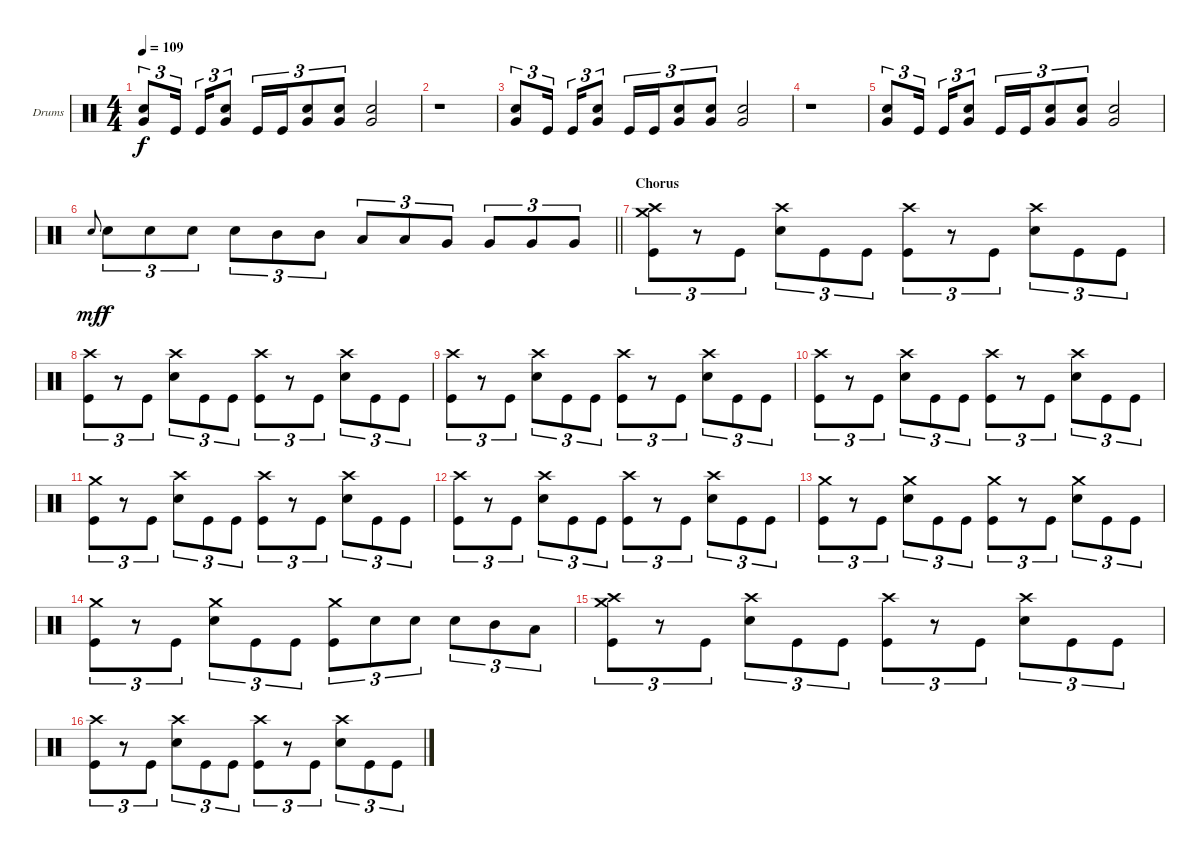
\bracketExtendMode groupsimilarinstruments
\firstSystemTrackNameOrientation horizontal
\otherSystemsTrackNameOrientation horizontal
\track ("Drumkit" "Drums") {instrument percussion}
\staff {score}
\articulation defaults
\ts (4 4)
\tempo 109
\clef neutral
\ks c
("Very Low Tom (hit)" "Snare (hit) 2").8{tu (3 2) dy f} "Kick (hit)".16{tu (3 2)} "Kick (hit)".16{tu (3 2)} ("Very Low Tom (hit)" "Snare (hit) 2").8{tu (3 2)} "Kick (hit)".16{tu (3 2)} "Kick (hit)".16{tu (3 2)} ("Very Low Tom (hit)" "Snare (hit) 2").8{tu (3 2)} ("Very Low Tom (hit)" "Snare (hit) 2").8{tu (3 2)} ("Very Low Tom (hit)" "Snare (hit) 2").2 |
r.1 |
("Very Low Tom (hit)" "Snare (hit) 2").8{tu (3 2)} "Kick (hit)".16{tu (3 2)} "Kick (hit)".16{tu (3 2)} ("Very Low Tom (hit)" "Snare (hit) 2").8{tu (3 2)} "Kick (hit)".16{tu (3 2)} "Kick (hit)".16{tu (3 2)} ("Very Low Tom (hit)" "Snare (hit) 2").8{tu (3 2)} ("Very Low Tom (hit)" "Snare (hit) 2").8{tu (3 2)} ("Very Low Tom (hit)" "Snare (hit) 2").2 |
r.1 |
("Very Low Tom (hit)" "Snare (hit) 2").8{tu (3 2)} "Kick (hit)".16{tu (3 2)} "Kick (hit)".16{tu (3 2)} ("Very Low Tom (hit)" "Snare (hit) 2").8{tu (3 2)} "Kick (hit)".16{tu (3 2)} "Kick (hit)".16{tu (3 2)} ("Very Low Tom (hit)" "Snare (hit) 2").8{tu (3 2)} ("Very Low Tom (hit)" "Snare (hit) 2").8{tu (3 2)} ("Very Low Tom (hit)" "Snare (hit) 2").2 |
\barLineRight lightlight "Snare (hit) 2".8{gr onbeat dy mf} "Snare (hit) 2".8{tu (3 2) dy f} "Snare (hit) 2".8{tu (3 2)} "Snare (hit) 2".8{tu (3 2)} "Snare (hit) 2".8{tu (3 2)} "Mid Tom (hit)".8{tu (3 2)} "Mid Tom (hit)".8{tu (3 2)} "Low Tom (hit)".8{tu (3 2)} "Low Tom (hit)".8{tu (3 2)} "Very Low Tom (hit)".8{tu (3 2)} "Very Low Tom (hit)".8{tu (3 2)} "Very Low Tom (hit)".8{tu (3 2)} "Very Low Tom (hit)".8{tu (3 2)}
|
\section ("" "Chorus")
("Crash high (hit)" "Crash medium (hit)" "Kick (hit)").8{tu (3 2)} r.8{tu (3 2)} "Kick (hit)".8{tu (3 2)} ("Crash high (hit)" "Snare (hit) 2").8{tu (3 2)} "Kick (hit)".8{tu (3 2)} "Kick (hit)".8{tu (3 2)} ("Crash high (hit)" "Kick (hit)").8{tu (3 2)} r.8{tu (3 2)} "Kick (hit)".8{tu (3 2)} ("Crash high (hit)" "Snare (hit) 2").8{tu (3 2)} "Kick (hit)".8{tu (3 2)} "Kick (hit)".8{tu (3 2)} |
("Crash high (hit)" "Kick (hit)").8{tu (3 2)} r.8{tu (3 2)} "Kick (hit)".8{tu (3 2)} ("Crash high (hit)" "Snare (hit) 2").8{tu (3 2)} "Kick (hit)".8{tu (3 2)} "Kick (hit)".8{tu (3 2)} ("Crash high (hit)" "Kick (hit)").8{tu (3 2)} r.8{tu (3 2)} "Kick (hit)".8{tu (3 2)} ("Crash high (hit)" "Snare (hit) 2").8{tu (3 2)} "Kick (hit)".8{tu (3 2)} "Kick (hit)".8{tu (3 2)} |
("Crash high (hit)" "Kick (hit)").8{tu (3 2)} r.8{tu (3 2)} "Kick (hit)".8{tu (3 2)} ("Crash high (hit)" "Snare (hit) 2").8{tu (3 2)} "Kick (hit)".8{tu (3 2)} "Kick (hit)".8{tu (3 2)} ("Crash high (hit)" "Kick (hit)").8{tu (3 2)} r.8{tu (3 2)} "Kick (hit)".8{tu (3 2)} ("Crash high (hit)" "Snare (hit) 2").8{tu (3 2)} "Kick (hit)".8{tu (3 2)} "Kick (hit)".8{tu (3 2)} |
("Crash high (hit)" "Kick (hit)").8{tu (3 2)} r.8{tu (3 2)} "Kick (hit)".8{tu (3 2)} ("Crash high (hit)" "Snare (hit) 2").8{tu (3 2)} "Kick (hit)".8{tu (3 2)} "Kick (hit)".8{tu (3 2)} ("Crash high (hit)" "Kick (hit)").8{tu (3 2)} r.8{tu (3 2)} "Kick (hit)".8{tu (3 2)} ("Crash high (hit)" "Snare (hit) 2").8{tu (3 2)} "Kick (hit)".8{tu (3 2)} "Kick (hit)".8{tu (3 2)} |
("Crash medium (hit)" "Kick (hit)").8{tu (3 2)} r.8{tu (3 2)} "Kick (hit)".8{tu (3 2)} ("Crash high (hit)" "Snare (hit) 2").8{tu (3 2)} "Kick (hit)".8{tu (3 2)} "Kick (hit)".8{tu (3 2)} ("Crash high (hit)" "Kick (hit)").8{tu (3 2)} r.8{tu (3 2)} "Kick (hit)".8{tu (3 2)} ("Crash high (hit)" "Snare (hit) 2").8{tu (3 2)} "Kick (hit)".8{tu (3 2)} "Kick (hit)".8{tu (3 2)} |
("Crash high (hit)" "Kick (hit)").8{tu (3 2)} r.8{tu (3 2)} "Kick (hit)".8{tu (3 2)} ("Crash high (hit)" "Snare (hit) 2").8{tu (3 2)} "Kick (hit)".8{tu (3 2)} "Kick (hit)".8{tu (3 2)} ("Crash high (hit)" "Kick (hit)").8{tu (3 2)} r.8{tu (3 2)} "Kick (hit)".8{tu (3 2)} ("Crash high (hit)" "Snare (hit) 2").8{tu (3 2)} "Kick (hit)".8{tu (3 2)} "Kick (hit)".8{tu (3 2)} |
("Crash medium (hit)" "Kick (hit)").8{tu (3 2)} r.8{tu (3 2)} "Kick (hit)".8{tu (3 2)} ("Crash medium (hit)" "Snare (hit) 2").8{tu (3 2)} "Kick (hit)".8{tu (3 2)} "Kick (hit)".8{tu (3 2)} ("Crash medium (hit)" "Kick (hit)").8{tu (3 2)} r.8{tu (3 2)} "Kick (hit)".8{tu (3 2)} ("Crash medium (hit)" "Snare (hit) 2").8{tu (3 2)} "Kick (hit)".8{tu (3 2)} "Kick (hit)".8{tu (3 2)} |
("Crash medium (hit)" "Kick (hit)").8{tu (3 2)} r.8{tu (3 2)} "Kick (hit)".8{tu (3 2)} ("Crash medium (hit)" "Snare (hit) 2").8{tu (3 2)} "Kick (hit)".8{tu (3 2)} "Kick (hit)".8{tu (3 2)} ("Crash medium (hit)" "Kick (hit)").8{tu (3 2)} "Snare (hit) 2".8{tu (3 2)} "Snare (hit) 2".8{tu (3 2)} "Snare (hit) 2".8{tu (3 2)} "Mid Tom (hit)".8{tu (3 2)} "Low Tom (hit)".8{tu (3 2)} |
("Crash high (hit)" "Crash medium (hit)" "Kick (hit)").8{tu (3 2)} r.8{tu (3 2)} "Kick (hit)".8{tu (3 2)} ("Crash high (hit)" "Snare (hit) 2").8{tu (3 2)} "Kick (hit)".8{tu (3 2)} "Kick (hit)".8{tu (3 2)} ("Crash high (hit)" "Kick (hit)").8{tu (3 2)} r.8{tu (3 2)} "Kick (hit)".8{tu (3 2)} ("Crash high (hit)" "Snare (hit) 2").8{tu (3 2)} "Kick (hit)".8{tu (3 2)} "Kick (hit)".8{tu (3 2)} |
("Crash high (hit)" "Kick (hit)").8{tu (3 2)} r.8{tu (3 2)} "Kick (hit)".8{tu (3 2)} ("Crash high (hit)" "Snare (hit) 2").8{tu (3 2)} "Kick (hit)".8{tu (3 2)} "Kick (hit)".8{tu (3 2)} ("Crash high (hit)" "Kick (hit)").8{tu (3 2)} r.8{tu (3 2)} "Kick (hit)".8{tu (3 2)} ("Crash high (hit)" "Snare (hit) 2").8{tu (3 2)} "Kick (hit)".8{tu (3 2)} "Kick (hit)".8{tu (3 2)}
